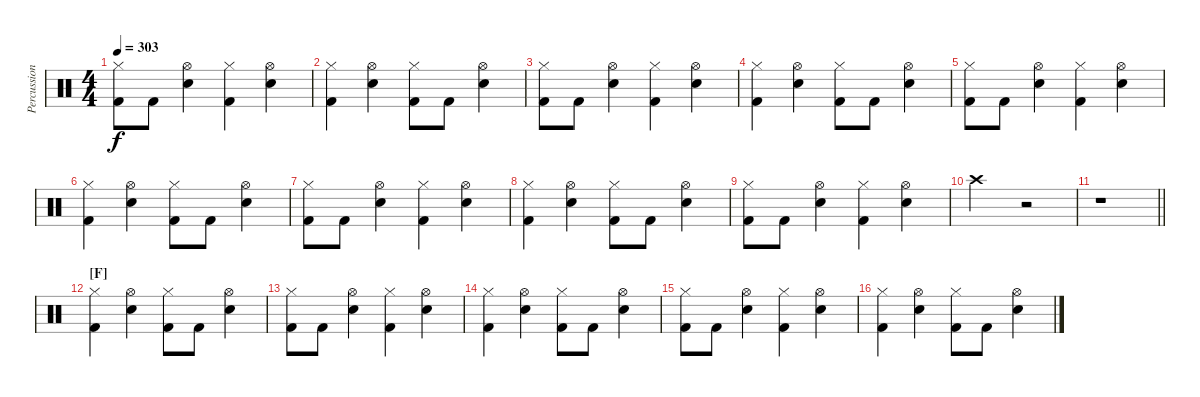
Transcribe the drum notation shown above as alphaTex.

\track ("Percussions" "Percussion") {instrument percussion}
\staff {score}
\articulation defaults
\ts (4 4)
\tempo 303
\clef neutral
\ks c
("Hi-Hat (closed)" "Kick (hit) 2").8{dy f} "Kick (hit) 2".8 ("Hi-Hat (open)" "Electric Snare (hit)").4 ("Hi-Hat (closed)" "Kick (hit) 2").4 ("Hi-Hat (open)" "Electric Snare (hit)").4 |
("Hi-Hat (closed)" "Kick (hit) 2").4 ("Hi-Hat (open)" "Electric Snare (hit)").4 ("Hi-Hat (closed)" "Kick (hit) 2").8 "Kick (hit) 2".8 ("Hi-Hat (open)" "Electric Snare (hit)").4 |
("Hi-Hat (closed)" "Kick (hit) 2").8 "Kick (hit) 2".8 ("Hi-Hat (open)" "Electric Snare (hit)").4 ("Hi-Hat (closed)" "Kick (hit) 2").4 ("Hi-Hat (open)" "Electric Snare (hit)").4 |
("Hi-Hat (closed)" "Kick (hit) 2").4 ("Hi-Hat (open)" "Electric Snare (hit)").4 ("Hi-Hat (closed)" "Kick (hit) 2").8 "Kick (hit) 2".8 ("Hi-Hat (open)" "Electric Snare (hit)").4 |
("Hi-Hat (closed)" "Kick (hit) 2").8 "Kick (hit) 2".8 ("Hi-Hat (open)" "Electric Snare (hit)").4 ("Hi-Hat (closed)" "Kick (hit) 2").4 ("Hi-Hat (open)" "Electric Snare (hit)").4 |
("Hi-Hat (closed)" "Kick (hit) 2").4 ("Hi-Hat (open)" "Electric Snare (hit)").4 ("Hi-Hat (closed)" "Kick (hit) 2").8 "Kick (hit) 2".8 ("Hi-Hat (open)" "Electric Snare (hit)").4 |
("Hi-Hat (closed)" "Kick (hit) 2").8 "Kick (hit) 2".8 ("Hi-Hat (open)" "Electric Snare (hit)").4 ("Hi-Hat (closed)" "Kick (hit) 2").4 ("Hi-Hat (open)" "Electric Snare (hit)").4 |
("Hi-Hat (closed)" "Kick (hit) 2").4 ("Hi-Hat (open)" "Electric Snare (hit)").4 ("Hi-Hat (closed)" "Kick (hit) 2").8 "Kick (hit) 2".8 ("Hi-Hat (open)" "Electric Snare (hit)").4 |
("Hi-Hat (closed)" "Kick (hit) 2").8 "Kick (hit) 2".8 ("Hi-Hat (open)" "Electric Snare (hit)").4 ("Hi-Hat (closed)" "Kick (hit) 2").4 ("Hi-Hat (open)" "Electric Snare (hit)").4 |
"Crash high (hit)".2 r.2 |
\barLineRight lightlight
r.1 |
\section ("" "[F]")
("Hi-Hat (closed)" "Kick (hit) 2").4 ("Hi-Hat (open)" "Electric Snare (hit)").4 ("Hi-Hat (closed)" "Kick (hit) 2").8 "Kick (hit) 2".8 ("Hi-Hat (open)" "Electric Snare (hit)").4 |
("Hi-Hat (closed)" "Kick (hit) 2").8 "Kick (hit) 2".8 ("Hi-Hat (open)" "Electric Snare (hit)").4 ("Hi-Hat (closed)" "Kick (hit) 2").4 ("Hi-Hat (open)" "Electric Snare (hit)").4 |
("Hi-Hat (closed)" "Kick (hit) 2").4 ("Hi-Hat (open)" "Electric Snare (hit)").4 ("Hi-Hat (closed)" "Kick (hit) 2").8 "Kick (hit) 2".8 ("Hi-Hat (open)" "Electric Snare (hit)").4 |
("Hi-Hat (closed)" "Kick (hit) 2").8 "Kick (hit) 2".8 ("Hi-Hat (open)" "Electric Snare (hit)").4 ("Hi-Hat (closed)" "Kick (hit) 2").4 ("Hi-Hat (open)" "Electric Snare (hit)").4 |
("Hi-Hat (closed)" "Kick (hit) 2").4 ("Hi-Hat (open)" "Electric Snare (hit)").4 ("Hi-Hat (closed)" "Kick (hit) 2").8 "Kick (hit) 2".8 ("Hi-Hat (open)" "Electric Snare (hit)").4
